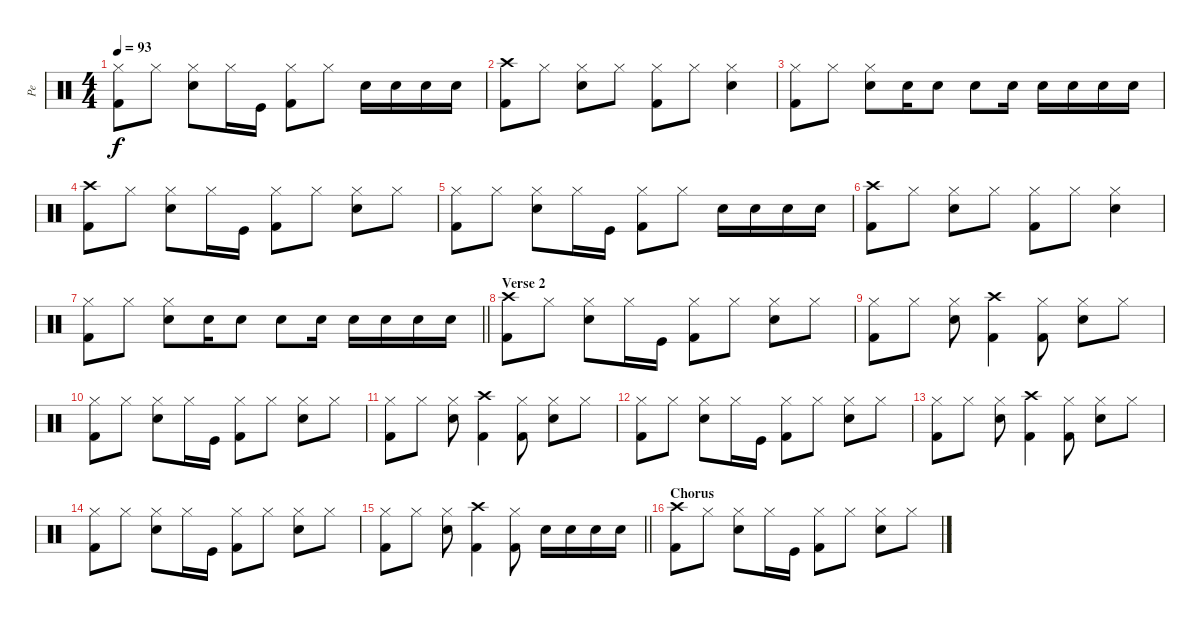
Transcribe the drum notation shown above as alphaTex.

\track ("Pe" "Pe") {instrument percussion}
\staff {score}
\articulation defaults
\ts (4 4)
\tempo 93
\clef neutral
\ks c
("Kick (hit) 2" "Hi-Hat (closed)").8{dy f} "Hi-Hat (closed)".8 ("Electric Snare (hit)" "Hi-Hat (closed)").8 "Hi-Hat (closed)".16 "Kick (hit)".16 ("Kick (hit) 2" "Hi-Hat (closed)").8 "Hi-Hat (closed)".8 "Electric Snare (hit)".16 "Electric Snare (hit)".16 "Electric Snare (hit)".16 "Electric Snare (hit)".16 |
("Kick (hit) 2" "Crash high (hit)").8 "Hi-Hat (closed)".8 ("Electric Snare (hit)" "Hi-Hat (closed)").8 "Hi-Hat (closed)".8 ("Kick (hit) 2" "Hi-Hat (closed)").8 "Hi-Hat (closed)".8 ("Electric Snare (hit)" "Hi-Hat (closed)").4 |
("Kick (hit) 2" "Hi-Hat (closed)").8 "Hi-Hat (closed)".8 ("Electric Snare (hit)" "Hi-Hat (closed)").8 "Electric Snare (hit)".16 "Electric Snare (hit)".8 "Electric Snare (hit)".8 "Electric Snare (hit)".16 "Electric Snare (hit)".16 "Electric Snare (hit)".16 "Electric Snare (hit)".16 "Electric Snare (hit)".16 |
("Kick (hit) 2" "Crash high (hit)").8 "Hi-Hat (closed)".8 ("Electric Snare (hit)" "Hi-Hat (closed)").8 "Hi-Hat (closed)".16 "Kick (hit)".16 ("Kick (hit) 2" "Hi-Hat (closed)").8 "Hi-Hat (closed)".8 ("Electric Snare (hit)" "Hi-Hat (closed)").8 "Hi-Hat (closed)".8 |
("Kick (hit) 2" "Hi-Hat (closed)").8 "Hi-Hat (closed)".8 ("Electric Snare (hit)" "Hi-Hat (closed)").8 "Hi-Hat (closed)".16 "Kick (hit)".16 ("Kick (hit) 2" "Hi-Hat (closed)").8 "Hi-Hat (closed)".8 "Electric Snare (hit)".16 "Electric Snare (hit)".16 "Electric Snare (hit)".16 "Electric Snare (hit)".16 |
("Kick (hit) 2" "Crash high (hit)").8 "Hi-Hat (closed)".8 ("Electric Snare (hit)" "Hi-Hat (closed)").8 "Hi-Hat (closed)".8 ("Kick (hit) 2" "Hi-Hat (closed)").8 "Hi-Hat (closed)".8 ("Electric Snare (hit)" "Hi-Hat (closed)").4 |
\barLineRight lightlight
("Kick (hit) 2" "Hi-Hat (closed)").8 "Hi-Hat (closed)".8 ("Electric Snare (hit)" "Hi-Hat (closed)").8 "Electric Snare (hit)".16 "Electric Snare (hit)".8 "Electric Snare (hit)".8 "Electric Snare (hit)".16 "Electric Snare (hit)".16 "Electric Snare (hit)".16 "Electric Snare (hit)".16 "Electric Snare (hit)".16 |
\section ("" "Verse 2")
("Kick (hit) 2" "Crash high (hit)").8 "Hi-Hat (closed)".8 ("Electric Snare (hit)" "Hi-Hat (closed)").8 "Hi-Hat (closed)".16 "Kick (hit)".16 ("Kick (hit) 2" "Hi-Hat (closed)").8 "Hi-Hat (closed)".8 ("Electric Snare (hit)" "Hi-Hat (closed)").8 "Hi-Hat (closed)".8 |
("Kick (hit) 2" "Hi-Hat (closed)").8 "Hi-Hat (closed)".8 ("Electric Snare (hit)" "Hi-Hat (closed)").8 ("Kick (hit) 2" "Crash high (hit)").4 ("Kick (hit) 2" "Hi-Hat (closed)").8 ("Electric Snare (hit)" "Hi-Hat (closed)").8 "Hi-Hat (closed)".8 |
("Kick (hit) 2" "Hi-Hat (closed)").8 "Hi-Hat (closed)".8 ("Electric Snare (hit)" "Hi-Hat (closed)").8 "Hi-Hat (closed)".16 "Kick (hit)".16 ("Kick (hit) 2" "Hi-Hat (closed)").8 "Hi-Hat (closed)".8 ("Electric Snare (hit)" "Hi-Hat (closed)").8 "Hi-Hat (closed)".8 |
("Kick (hit) 2" "Hi-Hat (closed)").8 "Hi-Hat (closed)".8 ("Electric Snare (hit)" "Hi-Hat (closed)").8 ("Kick (hit) 2" "Crash high (hit)").4 ("Kick (hit) 2" "Hi-Hat (closed)").8 ("Electric Snare (hit)" "Hi-Hat (closed)").8 "Hi-Hat (closed)".8 |
("Kick (hit) 2" "Hi-Hat (closed)").8 "Hi-Hat (closed)".8 ("Electric Snare (hit)" "Hi-Hat (closed)").8 "Hi-Hat (closed)".16 "Kick (hit)".16 ("Kick (hit) 2" "Hi-Hat (closed)").8 "Hi-Hat (closed)".8 ("Electric Snare (hit)" "Hi-Hat (closed)").8 "Hi-Hat (closed)".8 |
("Kick (hit) 2" "Hi-Hat (closed)").8 "Hi-Hat (closed)".8 ("Electric Snare (hit)" "Hi-Hat (closed)").8 ("Kick (hit) 2" "Crash high (hit)").4 ("Kick (hit) 2" "Hi-Hat (closed)").8 ("Electric Snare (hit)" "Hi-Hat (closed)").8 "Hi-Hat (closed)".8 |
("Kick (hit) 2" "Hi-Hat (closed)").8 "Hi-Hat (closed)".8 ("Electric Snare (hit)" "Hi-Hat (closed)").8 "Hi-Hat (closed)".16 "Kick (hit)".16 ("Kick (hit) 2" "Hi-Hat (closed)").8 "Hi-Hat (closed)".8 ("Electric Snare (hit)" "Hi-Hat (closed)").8 "Hi-Hat (closed)".8 |
\barLineRight lightlight
("Kick (hit) 2" "Hi-Hat (closed)").8 "Hi-Hat (closed)".8 ("Electric Snare (hit)" "Hi-Hat (closed)").8 ("Kick (hit) 2" "Crash high (hit)").4 ("Kick (hit) 2" "Hi-Hat (closed)").8 "Electric Snare (hit)".16 "Electric Snare (hit)".16 "Electric Snare (hit)".16 "Electric Snare (hit)".16 |
\section ("" "Chorus")
("Kick (hit) 2" "Crash high (hit)").8 "Hi-Hat (closed)".8 ("Electric Snare (hit)" "Hi-Hat (closed)").8 "Hi-Hat (closed)".16 "Kick (hit)".16 ("Kick (hit) 2" "Hi-Hat (closed)").8 "Hi-Hat (closed)".8 ("Electric Snare (hit)" "Hi-Hat (closed)").8 "Hi-Hat (closed)".8
